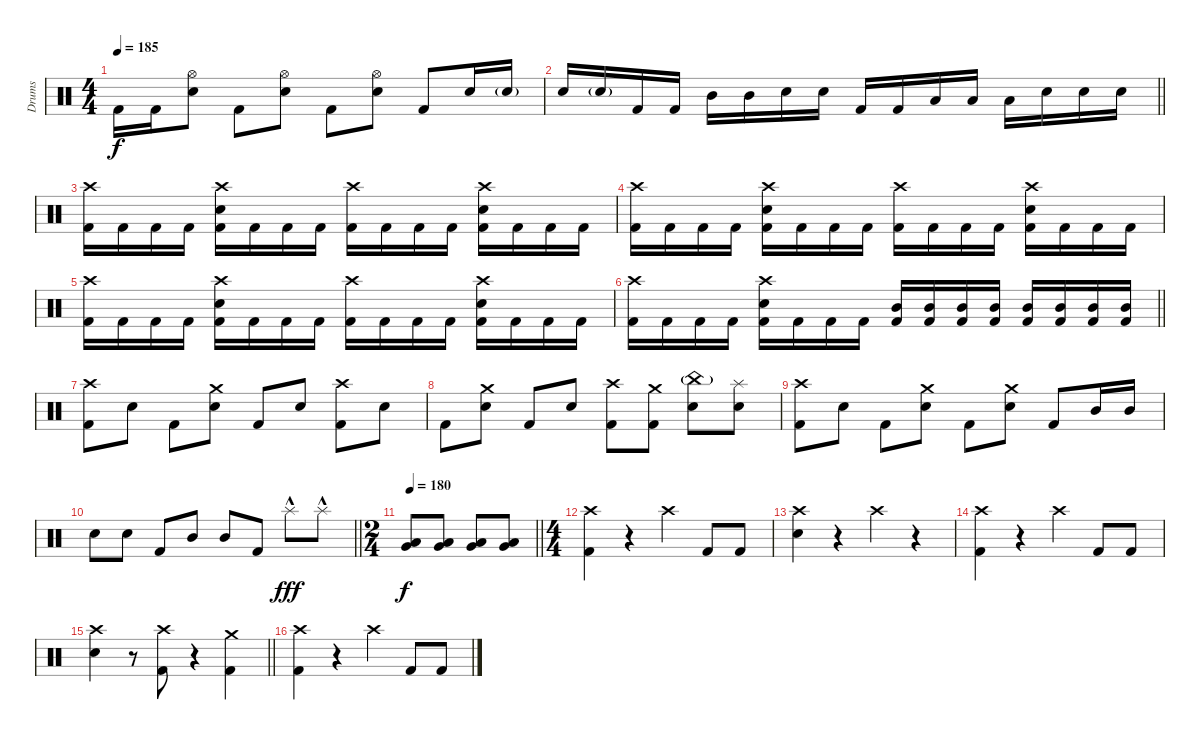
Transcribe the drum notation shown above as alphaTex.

\track ("Drums" "Drums") {instrument percussion}
\staff {score}
\articulation defaults
\ts (4 4)
\tempo 185
\clef neutral
\ks c "Kick (hit) 2".16{dy f} "Kick (hit) 2".16
("Hi-Hat (open)" "Electric Snare (hit)").8 "Kick (hit) 2".8 ("Hi-Hat (open)" "Electric Snare (hit)").8 "Kick (hit) 2".8 ("Hi-Hat (open)" "Electric Snare (hit)").8 "Kick (hit) 2".8 "Electric Snare (hit)".16 "Electric Snare (hit)"{g}.16 |
\barLineRight lightlight "Electric Snare (hit)".16 "Electric Snare (hit)"{g}.16 "Kick (hit) 2".16 "Kick (hit) 2".16 "Mid Tom (hit)".16 "Mid Tom (hit)".16 "Electric Snare (hit)".16 "Electric Snare (hit)".16 "Kick (hit) 2".16 "Kick (hit) 2".16 "Low Tom (hit)".16 "Low Tom (hit)".16 "Low Tom (hit)".16 "Electric Snare (hit)".16 "Electric Snare (hit)".16 "Electric Snare (hit)".16
|
("Crash high (hit)" "Kick (hit) 2").16 "Kick (hit) 2".16 "Kick (hit) 2".16 "Kick (hit) 2".16 ("Crash high (hit)" "Electric Snare (hit)" "Kick (hit) 2").16 "Kick (hit) 2".16 "Kick (hit) 2".16 "Kick (hit) 2".16 ("Crash high (hit)" "Kick (hit) 2").16 "Kick (hit) 2".16 "Kick (hit) 2".16 "Kick (hit) 2".16 ("Crash high (hit)" "Electric Snare (hit)" "Kick (hit) 2").16 "Kick (hit) 2".16 "Kick (hit) 2".16 "Kick (hit) 2".16 |
("Crash high (hit)" "Kick (hit) 2").16 "Kick (hit) 2".16 "Kick (hit) 2".16 "Kick (hit) 2".16 ("Crash high (hit)" "Electric Snare (hit)" "Kick (hit) 2").16 "Kick (hit) 2".16 "Kick (hit) 2".16 "Kick (hit) 2".16 ("Crash high (hit)" "Kick (hit) 2").16 "Kick (hit) 2".16 "Kick (hit) 2".16 "Kick (hit) 2".16 ("Crash high (hit)" "Electric Snare (hit)" "Kick (hit) 2").16 "Kick (hit) 2".16 "Kick (hit) 2".16 "Kick (hit) 2".16 |
("Crash high (hit)" "Kick (hit) 2").16 "Kick (hit) 2".16 "Kick (hit) 2".16 "Kick (hit) 2".16 ("Crash high (hit)" "Electric Snare (hit)" "Kick (hit) 2").16 "Kick (hit) 2".16 "Kick (hit) 2".16 "Kick (hit) 2".16 ("Crash high (hit)" "Kick (hit) 2").16 "Kick (hit) 2".16 "Kick (hit) 2".16 "Kick (hit) 2".16 ("Crash high (hit)" "Electric Snare (hit)" "Kick (hit) 2").16 "Kick (hit) 2".16 "Kick (hit) 2".16 "Kick (hit) 2".16 |
\barLineRight lightlight
("Crash high (hit)" "Kick (hit) 2").16 "Kick (hit) 2".16 "Kick (hit) 2".16 "Kick (hit) 2".16 ("Crash high (hit)" "Electric Snare (hit)" "Kick (hit) 2").16 "Kick (hit) 2".16 "Kick (hit) 2".16 "Kick (hit) 2".16 ("Mid Tom (hit)" "Kick (hit) 2").16 ("Mid Tom (hit)" "Kick (hit) 2").16 ("Mid Tom (hit)" "Kick (hit) 2").16 ("Mid Tom (hit)" "Kick (hit) 2").16 ("Mid Tom (hit)" "Kick (hit) 2").16 ("Mid Tom (hit)" "Kick (hit) 2").16 ("Mid Tom (hit)" "Kick (hit) 2").16 ("Mid Tom (hit)" "Kick (hit) 2").16 |
("Crash high (hit)" "Kick (hit) 2").8 "Electric Snare (hit)".8 "Kick (hit) 2".8 ("Crash medium (hit)" "Electric Snare (hit)").8 "Kick (hit) 2".8 "Electric Snare (hit)".8 ("Crash high (hit)" "Kick (hit) 2").8 "Electric Snare (hit)".8 |
"Kick (hit) 2".8 ("Crash medium (hit)" "Electric Snare (hit)").8 "Kick (hit) 2".8 "Electric Snare (hit)".8 ("Crash high (hit)" "Kick (hit) 2").8 ("Crash medium (hit)" "Kick (hit) 2").8 ("China (hit)"{g} "Electric Snare (hit)").8 ("Splash (hit)" "Electric Snare (hit)").8 |
("Crash high (hit)" "Kick (hit) 2").8 "Electric Snare (hit)".8 "Kick (hit) 2".8 ("Crash medium (hit)" "Electric Snare (hit)").8 "Kick (hit) 2".8 ("Crash medium (hit)" "Electric Snare (hit)").8 "Kick (hit) 2".8 "Mid Tom (hit)".16 "Mid Tom (hit)".16 |
\barLineRight lightlight "Electric Snare (hit)".8 "Electric Snare (hit)".8 "Kick (hit) 2".8 "Mid Tom (hit)".8 "Mid Tom (hit)".8 "Kick (hit) 2".8 "Splash (hit)"{hac}.8{dy fff} "Splash (hit)"{hac}.8
|
\ts (2 4)
\tempo 180
\barLineRight lightlight
("Low Tom (hit)" "Very Low Tom (hit)").8{dy f} ("Low Tom (hit)" "Very Low Tom (hit)").8 ("Low Tom (hit)" "Very Low Tom (hit)").8 ("Low Tom (hit)" "Very Low Tom (hit)").8 |
\ts (4 4)
("Crash high (hit)" "Kick (hit) 2").4 r.4 "Crash high (hit)".4 "Kick (hit) 2".8 "Kick (hit) 2".8 |
("Crash high (hit)" "Electric Snare (hit)").4 r.4 "Crash high (hit)".4 r.4 |
("Crash high (hit)" "Kick (hit) 2").4 r.4 "Crash high (hit)".4 "Kick (hit) 2".8 "Kick (hit) 2".8 |
\barLineRight lightlight
("Crash high (hit)" "Electric Snare (hit)").4 r.8 ("Crash high (hit)" "Kick (hit) 2").8 r.4 ("Crash medium (hit)" "Kick (hit) 2").4 |
("Crash high (hit)" "Kick (hit) 2").4 r.4 "Crash high (hit)".4 "Kick (hit) 2".8 "Kick (hit) 2".8
